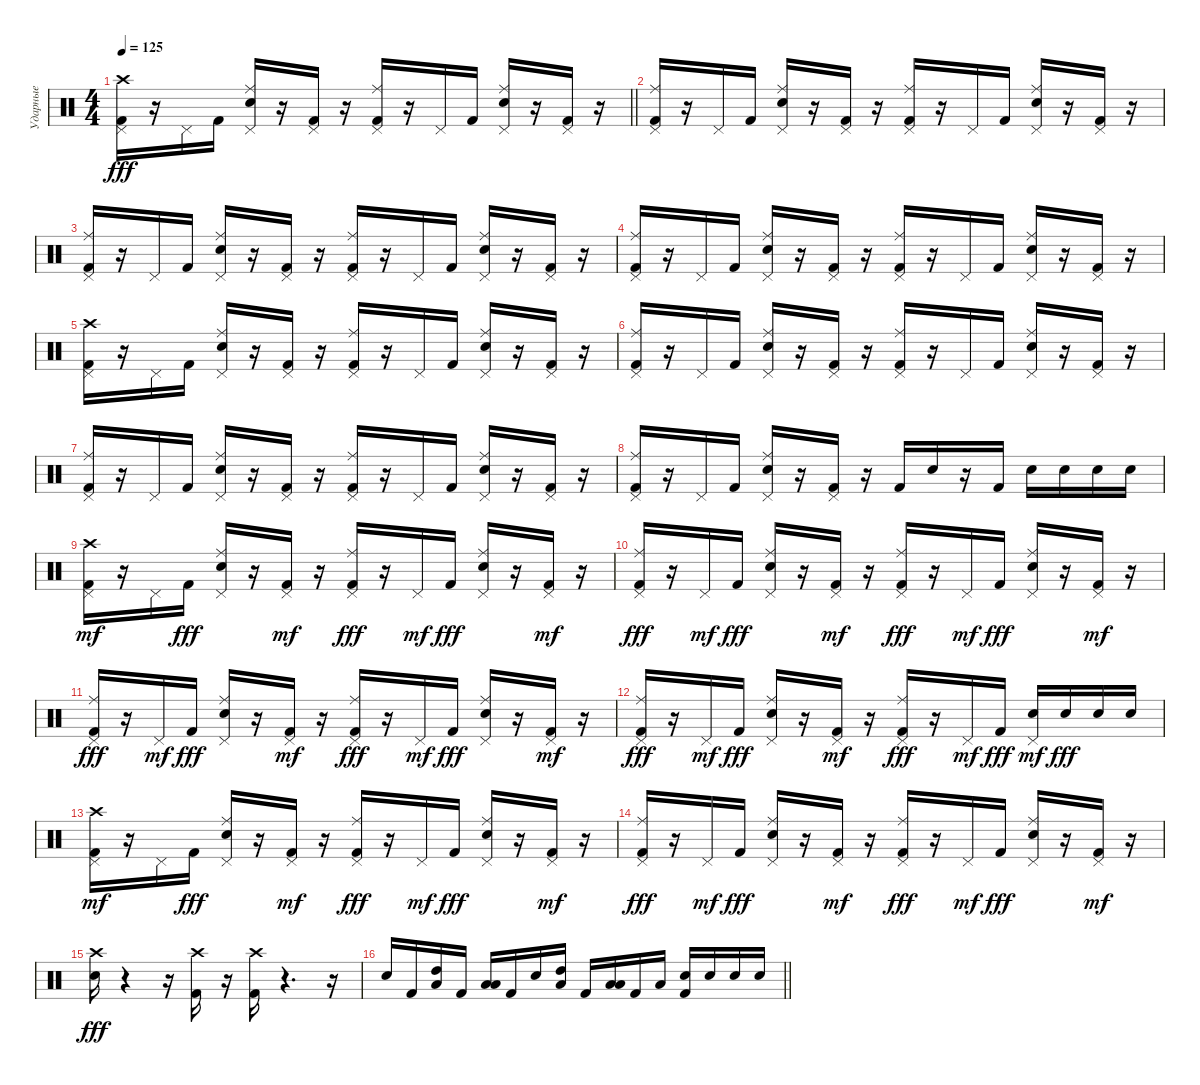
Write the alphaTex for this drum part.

\track ("Ударные" "Ударные") {instrument percussion}
\staff {score}
\articulation defaults
\ts (4 4)
\tempo 125
\clef neutral
\barLineRight lightlight
\ks c
("Pedal Hi-Hat (hit)" "Kick (hit) 2" "Crash high (hit)").16{dy fff} r.16 "Pedal Hi-Hat (hit)".16 "Kick (hit) 2".16 ("Pedal Hi-Hat (hit)" "Snare (hit) 2" "Ride (middle)").16 r.16 ("Pedal Hi-Hat (hit)" "Kick (hit) 2").16 r.16 ("Pedal Hi-Hat (hit)" "Kick (hit) 2" "Ride (middle)").16 r.16 "Pedal Hi-Hat (hit)".16 "Kick (hit) 2".16 ("Pedal Hi-Hat (hit)" "Snare (hit) 2" "Ride (middle)").16 r.16 ("Pedal Hi-Hat (hit)" "Kick (hit) 2").16 r.16 |
("Pedal Hi-Hat (hit)" "Kick (hit) 2" "Ride (middle)").16 r.16 "Pedal Hi-Hat (hit)".16 "Kick (hit) 2".16 ("Pedal Hi-Hat (hit)" "Snare (hit) 2" "Ride (middle)").16 r.16 ("Pedal Hi-Hat (hit)" "Kick (hit) 2").16 r.16 ("Pedal Hi-Hat (hit)" "Kick (hit) 2" "Ride (middle)").16 r.16 "Pedal Hi-Hat (hit)".16 "Kick (hit) 2".16 ("Pedal Hi-Hat (hit)" "Snare (hit) 2" "Ride (middle)").16 r.16 ("Pedal Hi-Hat (hit)" "Kick (hit) 2").16 r.16 |
("Pedal Hi-Hat (hit)" "Kick (hit) 2" "Ride (middle)").16 r.16 "Pedal Hi-Hat (hit)".16 "Kick (hit) 2".16 ("Pedal Hi-Hat (hit)" "Snare (hit) 2" "Ride (middle)").16 r.16 ("Pedal Hi-Hat (hit)" "Kick (hit) 2").16 r.16 ("Pedal Hi-Hat (hit)" "Kick (hit) 2" "Ride (middle)").16 r.16 "Pedal Hi-Hat (hit)".16 "Kick (hit) 2".16 ("Pedal Hi-Hat (hit)" "Snare (hit) 2" "Ride (middle)").16 r.16 ("Pedal Hi-Hat (hit)" "Kick (hit) 2").16 r.16 |
("Pedal Hi-Hat (hit)" "Kick (hit) 2" "Ride (middle)").16 r.16 "Pedal Hi-Hat (hit)".16 "Kick (hit) 2".16 ("Pedal Hi-Hat (hit)" "Snare (hit) 2" "Ride (middle)").16 r.16 ("Pedal Hi-Hat (hit)" "Kick (hit) 2").16 r.16 ("Pedal Hi-Hat (hit)" "Kick (hit) 2" "Ride (middle)").16 r.16 "Pedal Hi-Hat (hit)".16 "Kick (hit) 2".16 ("Pedal Hi-Hat (hit)" "Snare (hit) 2" "Ride (middle)").16 r.16 ("Pedal Hi-Hat (hit)" "Kick (hit) 2").16 r.16 |
("Pedal Hi-Hat (hit)" "Kick (hit) 2" "Crash high (hit)").16 r.16 "Pedal Hi-Hat (hit)".16 "Kick (hit) 2".16 ("Pedal Hi-Hat (hit)" "Snare (hit) 2" "Ride (middle)").16 r.16 ("Pedal Hi-Hat (hit)" "Kick (hit) 2").16 r.16 ("Pedal Hi-Hat (hit)" "Kick (hit) 2" "Ride (middle)").16 r.16 "Pedal Hi-Hat (hit)".16 "Kick (hit) 2".16 ("Pedal Hi-Hat (hit)" "Snare (hit) 2" "Ride (middle)").16 r.16 ("Pedal Hi-Hat (hit)" "Kick (hit) 2").16 r.16 |
("Pedal Hi-Hat (hit)" "Kick (hit) 2" "Ride (middle)").16 r.16 "Pedal Hi-Hat (hit)".16 "Kick (hit) 2".16 ("Pedal Hi-Hat (hit)" "Snare (hit) 2" "Ride (middle)").16 r.16 ("Pedal Hi-Hat (hit)" "Kick (hit) 2").16 r.16 ("Pedal Hi-Hat (hit)" "Kick (hit) 2" "Ride (middle)").16 r.16 "Pedal Hi-Hat (hit)".16 "Kick (hit) 2".16 ("Pedal Hi-Hat (hit)" "Snare (hit) 2" "Ride (middle)").16 r.16 ("Pedal Hi-Hat (hit)" "Kick (hit) 2").16 r.16 |
("Pedal Hi-Hat (hit)" "Kick (hit) 2" "Ride (middle)").16 r.16 "Pedal Hi-Hat (hit)".16 "Kick (hit) 2".16 ("Pedal Hi-Hat (hit)" "Snare (hit) 2" "Ride (middle)").16 r.16 ("Pedal Hi-Hat (hit)" "Kick (hit) 2").16 r.16 ("Pedal Hi-Hat (hit)" "Kick (hit) 2" "Ride (middle)").16 r.16 "Pedal Hi-Hat (hit)".16 "Kick (hit) 2".16 ("Pedal Hi-Hat (hit)" "Snare (hit) 2" "Ride (middle)").16 r.16 ("Pedal Hi-Hat (hit)" "Kick (hit) 2").16 r.16 |
("Pedal Hi-Hat (hit)" "Kick (hit) 2" "Ride (middle)").16 r.16 "Pedal Hi-Hat (hit)".16 "Kick (hit) 2".16 ("Pedal Hi-Hat (hit)" "Snare (hit) 2" "Ride (middle)").16 r.16 ("Pedal Hi-Hat (hit)" "Kick (hit) 2").16 r.16 "Kick (hit) 2".16 "Snare (hit) 2".16 r.16 "Kick (hit) 2".16 "Snare (hit) 2".16 "Snare (hit) 2".16 "Snare (hit) 2".16 "Snare (hit) 2".16 |
("Kick (hit) 2" "Crash high (hit)" "Pedal Hi-Hat (hit)").16{dy mf} r.16 "Pedal Hi-Hat (hit)".16 "Kick (hit) 2".16{dy fff} ("Snare (hit) 2" "Pedal Hi-Hat (hit)" "Ride (middle)").16 r.16 ("Kick (hit) 2" "Pedal Hi-Hat (hit)").16{dy mf} r.16 ("Kick (hit) 2" "Pedal Hi-Hat (hit)" "Ride (middle)").16{dy fff} r.16 "Pedal Hi-Hat (hit)".16{dy mf} "Kick (hit) 2".16{dy fff} ("Snare (hit) 2" "Pedal Hi-Hat (hit)" "Ride (middle)").16 r.16 ("Kick (hit) 2" "Pedal Hi-Hat (hit)").16{dy mf} r.16 |
("Kick (hit) 2" "Pedal Hi-Hat (hit)" "Ride (middle)").16{dy fff} r.16 "Pedal Hi-Hat (hit)".16{dy mf} "Kick (hit) 2".16{dy fff} ("Snare (hit) 2" "Pedal Hi-Hat (hit)" "Ride (middle)").16 r.16 ("Kick (hit) 2" "Pedal Hi-Hat (hit)").16{dy mf} r.16 ("Kick (hit) 2" "Pedal Hi-Hat (hit)" "Ride (middle)").16{dy fff} r.16 "Pedal Hi-Hat (hit)".16{dy mf} "Kick (hit) 2".16{dy fff} ("Snare (hit) 2" "Pedal Hi-Hat (hit)" "Ride (middle)").16 r.16 ("Kick (hit) 2" "Pedal Hi-Hat (hit)").16{dy mf} r.16 |
("Kick (hit) 2" "Pedal Hi-Hat (hit)" "Ride (middle)").16{dy fff} r.16 "Pedal Hi-Hat (hit)".16{dy mf} "Kick (hit) 2".16{dy fff} ("Snare (hit) 2" "Pedal Hi-Hat (hit)" "Ride (middle)").16 r.16 ("Kick (hit) 2" "Pedal Hi-Hat (hit)").16{dy mf} r.16 ("Kick (hit) 2" "Pedal Hi-Hat (hit)" "Ride (middle)").16{dy fff} r.16 "Pedal Hi-Hat (hit)".16{dy mf} "Kick (hit) 2".16{dy fff} ("Snare (hit) 2" "Pedal Hi-Hat (hit)" "Ride (middle)").16 r.16 ("Kick (hit) 2" "Pedal Hi-Hat (hit)").16{dy mf} r.16 |
("Kick (hit) 2" "Pedal Hi-Hat (hit)" "Ride (middle)").16{dy fff} r.16 "Pedal Hi-Hat (hit)".16{dy mf} "Kick (hit) 2".16{dy fff} ("Snare (hit) 2" "Pedal Hi-Hat (hit)" "Ride (middle)").16 r.16 ("Kick (hit) 2" "Pedal Hi-Hat (hit)").16{dy mf} r.16 ("Kick (hit) 2" "Pedal Hi-Hat (hit)" "Ride (middle)").16{dy fff} r.16 "Pedal Hi-Hat (hit)".16{dy mf} "Kick (hit) 2".16{dy fff} ("Snare (hit) 2" "Pedal Hi-Hat (hit)").16{dy mf} "Snare (hit) 2".16{dy fff} "Snare (hit) 2".16 "Snare (hit) 2".16 |
("Kick (hit) 2" "Crash high (hit)" "Pedal Hi-Hat (hit)").16{dy mf} r.16 "Pedal Hi-Hat (hit)".16 "Kick (hit) 2".16{dy fff} ("Snare (hit) 2" "Pedal Hi-Hat (hit)" "Ride (middle)").16 r.16 ("Kick (hit) 2" "Pedal Hi-Hat (hit)").16{dy mf} r.16 ("Kick (hit) 2" "Pedal Hi-Hat (hit)" "Ride (middle)").16{dy fff} r.16 "Pedal Hi-Hat (hit)".16{dy mf} "Kick (hit) 2".16{dy fff} ("Snare (hit) 2" "Pedal Hi-Hat (hit)" "Ride (middle)").16 r.16 ("Kick (hit) 2" "Pedal Hi-Hat (hit)").16{dy mf} r.16 |
("Kick (hit) 2" "Pedal Hi-Hat (hit)" "Ride (middle)").16{dy fff} r.16 "Pedal Hi-Hat (hit)".16{dy mf} "Kick (hit) 2".16{dy fff} ("Snare (hit) 2" "Pedal Hi-Hat (hit)" "Ride (middle)").16 r.16 ("Kick (hit) 2" "Pedal Hi-Hat (hit)").16{dy mf} r.16 ("Kick (hit) 2" "Pedal Hi-Hat (hit)" "Ride (middle)").16{dy fff} r.16 "Pedal Hi-Hat (hit)".16{dy mf} "Kick (hit) 2".16{dy fff} ("Snare (hit) 2" "Pedal Hi-Hat (hit)" "Ride (middle)").16 r.16 ("Kick (hit) 2" "Pedal Hi-Hat (hit)").16{dy mf} r.16 |
("Snare (hit) 2" "Crash high (hit)").16{dy fff} r.4 r.16 ("Crash high (hit)" "Kick (hit) 2").16 r.16 ("Crash high (hit)" "Kick (hit) 2").16 r.4{d} r.16 |
\barLineRight lightlight "Snare (hit) 2".16 "Kick (hit) 2".16
("High Tom (hit)" "Low Floor Tom (hit)").16 "Kick (hit) 2".16 ("Low Floor Tom (hit)" "Low Tom (hit)").16 "Kick (hit) 2".16 "Snare (hit) 2".16 ("High Tom (hit)" "Low Floor Tom (hit)").16 "Kick (hit) 2".16 ("Low Tom (hit)" "Low Floor Tom (hit)").16 "Kick (hit) 2".16 "Low Floor Tom (hit)".16 ("Snare (hit) 2" "Kick (hit) 2").16 "Snare (hit) 2".16 "Snare (hit) 2".16 "Snare (hit) 2".16
